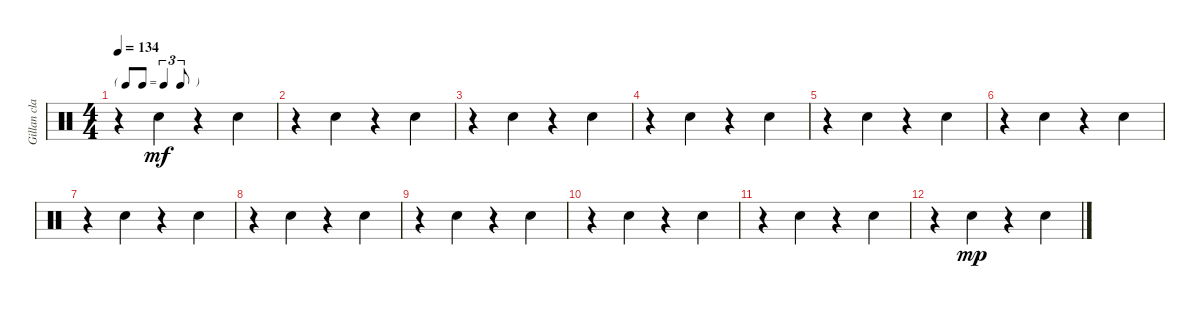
\track ("Gillan claps along" "Gillan cla") {instrument percussion}
\staff {score}
\articulation defaults
\ts (4 4)
\tf triplet8th
\tempo 134
\clef neutral
\ks c
r.4{dy mf} "Hand Clap (hit)".4 r.4 "Hand Clap (hit)".4 |
r.4 "Hand Clap (hit)".4 r.4 "Hand Clap (hit)".4 |
r.4 "Hand Clap (hit)".4 r.4 "Hand Clap (hit)".4 |
r.4 "Hand Clap (hit)".4 r.4 "Hand Clap (hit)".4 |
r.4 "Hand Clap (hit)".4 r.4 "Hand Clap (hit)".4 |
r.4 "Hand Clap (hit)".4 r.4 "Hand Clap (hit)".4 |
r.4 "Hand Clap (hit)".4 r.4 "Hand Clap (hit)".4 |
r.4 "Hand Clap (hit)".4 r.4 "Hand Clap (hit)".4 |
r.4 "Hand Clap (hit)".4 r.4 "Hand Clap (hit)".4 |
r.4 "Hand Clap (hit)".4 r.4 "Hand Clap (hit)".4 |
r.4 "Hand Clap (hit)".4 r.4 "Hand Clap (hit)".4 |
r.4 "Hand Clap (hit)".4{dy mp} r.4 "Hand Clap (hit)".4
